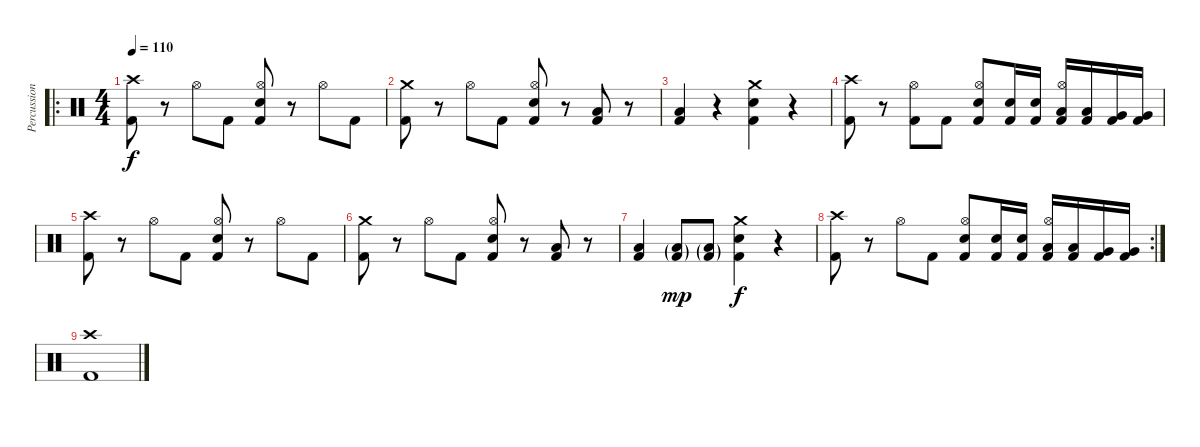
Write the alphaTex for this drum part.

\track ("Percussion" "Percussion") {instrument percussion}
\staff {score}
\articulation defaults
\ro
\ts (4 4)
\tempo 110
\clef neutral
\ks c
("Crash high (hit)" "Kick (hit) 2").8{dy f} r.8 "Hi-Hat (open)".8 "Kick (hit) 2".8 ("Hi-Hat (open)" "Electric Snare (hit)" "Kick (hit) 2").8 r.8 "Hi-Hat (open)".8 "Kick (hit) 2".8 |
("Crash medium (hit)" "Kick (hit) 2").8 r.8 "Hi-Hat (open)".8 "Kick (hit) 2".8 ("Hi-Hat (open)" "Electric Snare (hit)" "Kick (hit) 2").8 r.8 ("Low Tom (hit)" "Kick (hit) 2").8 r.8 |
("Low Tom (hit)" "Kick (hit) 2").4 r.4 ("Crash medium (hit)" "Electric Snare (hit)" "Kick (hit) 2").4 r.4 |
("Crash high (hit)" "Kick (hit) 2").8 r.8 ("Hi-Hat (open)" "Kick (hit) 2").8 "Kick (hit) 2".8 ("Hi-Hat (open)" "Electric Snare (hit)" "Kick (hit) 2").8 ("Electric Snare (hit)" "Kick (hit) 2").16 ("Electric Snare (hit)" "Kick (hit) 2").16 ("Hi-Hat (open)" "Low Tom (hit)" "Kick (hit) 2").16 ("Low Tom (hit)" "Kick (hit) 2").16 ("Very Low Tom (hit)" "Kick (hit) 2").16 ("Very Low Tom (hit)" "Kick (hit) 2").16 |
("Crash high (hit)" "Kick (hit) 2").8 r.8 "Hi-Hat (open)".8 "Kick (hit) 2".8 ("Hi-Hat (open)" "Electric Snare (hit)" "Kick (hit) 2").8 r.8 "Hi-Hat (open)".8 "Kick (hit) 2".8 |
("Crash medium (hit)" "Kick (hit) 2").8 r.8 "Hi-Hat (open)".8 "Kick (hit) 2".8 ("Hi-Hat (open)" "Electric Snare (hit)" "Kick (hit) 2").8 r.8 ("Low Tom (hit)" "Kick (hit) 2").8 r.8 |
("Low Tom (hit)" "Kick (hit) 2").4 ("Low Tom (hit)"{g} "Kick (hit) 2"{g}).8{dy mp} ("Low Tom (hit)"{g} "Kick (hit) 2"{g}).8 ("Crash medium (hit)" "Electric Snare (hit)" "Kick (hit) 2").4{dy f} r.4 |
\rc 2
("Crash high (hit)" "Kick (hit) 2").8 r.8 "Hi-Hat (open)".8 "Kick (hit) 2".8 ("Hi-Hat (open)" "Electric Snare (hit)" "Kick (hit) 2").8 ("Electric Snare (hit)" "Kick (hit) 2").16 ("Electric Snare (hit)" "Kick (hit) 2").16 ("Hi-Hat (open)" "Low Tom (hit)" "Kick (hit) 2").16 ("Low Tom (hit)" "Kick (hit) 2").16 ("Very Low Tom (hit)" "Kick (hit) 2").16 ("Very Low Tom (hit)" "Kick (hit) 2").16 |
("Crash high (hit)" "Kick (hit) 2").1
